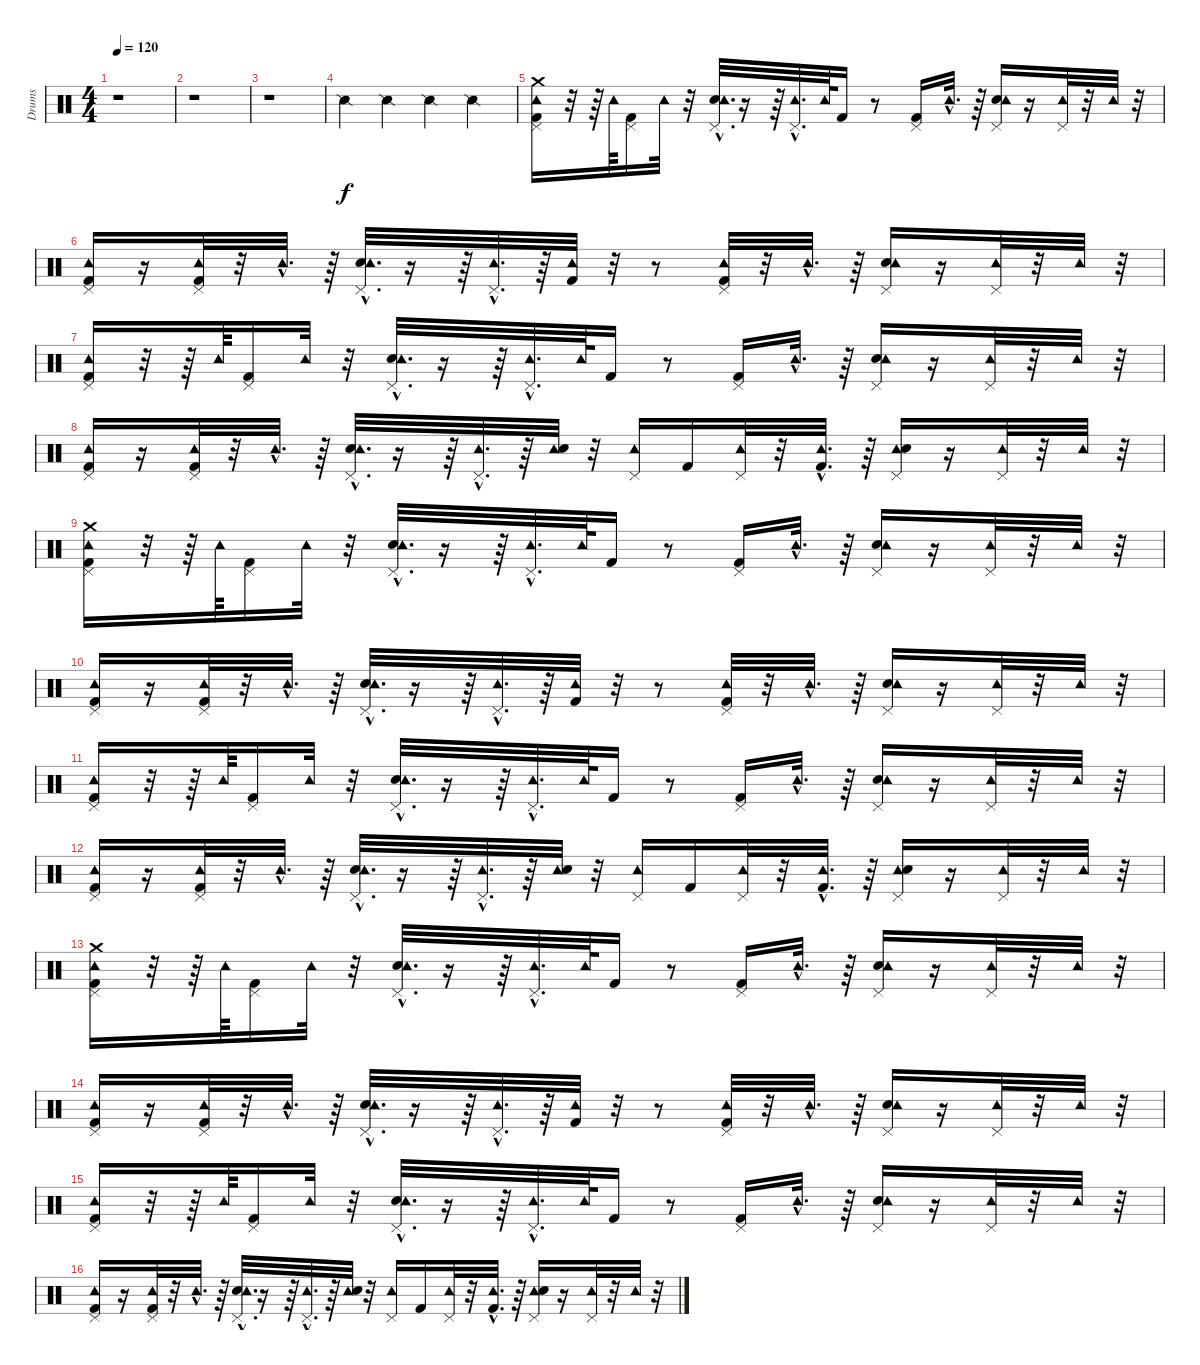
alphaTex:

\track ("Drums" "Drums") {instrument percussion}
\staff {score}
\articulation defaults
\ts (4 4)
\tempo 120
\clef neutral
\ks c
r.1{dy f} |
r.1 |
r.1 |
"Snare (side stick) 2".4 "Snare (side stick) 2".4 "Snare (side stick) 2".4 "Snare (side stick) 2".4 |
("Tambourine (hit)" "Pedal Hi-Hat (hit)" "Kick (hit) 2" "Crash medium (hit)").16 r.32 r.64 "Tambourine (hit)".64 ("Kick (hit) 2" "Pedal Hi-Hat (hit)").16 "Tambourine (hit)".32 r.32 ("Electric Snare (hit)"{hac} "Pedal Hi-Hat (hit)"{hac} "Tambourine (hit)"{hac}).32{d} r.16 r.64 ("Pedal Hi-Hat (hit)"{hac} "Tambourine (hit)"{hac}).32{d} "Tambourine (hit)".64 "Kick (hit) 2".16 r.8 ("Kick (hit) 2" "Pedal Hi-Hat (hit)").16 "Tambourine (hit)"{hac}.32{d} r.64 ("Electric Snare (hit)" "Pedal Hi-Hat (hit)" "Tambourine (hit)").16 r.16 ("Pedal Hi-Hat (hit)" "Tambourine (hit)").32 r.32 "Tambourine (hit)".32 r.32 |
("Kick (hit) 2" "Pedal Hi-Hat (hit)" "Tambourine (hit)").16 r.16 ("Kick (hit) 2" "Pedal Hi-Hat (hit)" "Tambourine (hit)").32 r.32 "Tambourine (hit)"{hac}.32{d} r.64 ("Electric Snare (hit)"{hac} "Pedal Hi-Hat (hit)"{hac} "Tambourine (hit)"{hac}).32{d} r.16 r.64 ("Pedal Hi-Hat (hit)"{hac} "Tambourine (hit)"{hac}).32{d} r.64 ("Kick (hit) 2" "Tambourine (hit)").32 r.32 r.8 ("Kick (hit) 2" "Pedal Hi-Hat (hit)" "Tambourine (hit)").32 r.32 "Tambourine (hit)"{hac}.32{d} r.64 ("Electric Snare (hit)" "Pedal Hi-Hat (hit)" "Tambourine (hit)").16 r.16 ("Pedal Hi-Hat (hit)" "Tambourine (hit)").32 r.32 "Tambourine (hit)".32 r.32 |
("Kick (hit) 2" "Pedal Hi-Hat (hit)" "Tambourine (hit)").16 r.32 r.64 "Tambourine (hit)".64 ("Kick (hit) 2" "Pedal Hi-Hat (hit)").16 "Tambourine (hit)".32 r.32 ("Electric Snare (hit)"{hac} "Pedal Hi-Hat (hit)"{hac} "Tambourine (hit)"{hac}).32{d} r.16 r.64 ("Pedal Hi-Hat (hit)"{hac} "Tambourine (hit)"{hac}).32{d} "Tambourine (hit)".64 "Kick (hit) 2".16 r.8 ("Kick (hit) 2" "Pedal Hi-Hat (hit)").16 "Tambourine (hit)"{hac}.32{d} r.64 ("Electric Snare (hit)" "Pedal Hi-Hat (hit)" "Tambourine (hit)").16 r.16 ("Pedal Hi-Hat (hit)" "Tambourine (hit)").32 r.32 "Tambourine (hit)".32 r.32 |
("Kick (hit) 2" "Pedal Hi-Hat (hit)" "Tambourine (hit)").16 r.16 ("Kick (hit) 2" "Pedal Hi-Hat (hit)" "Tambourine (hit)").32 r.32 "Tambourine (hit)"{hac}.32{d} r.64 ("Electric Snare (hit)"{hac} "Pedal Hi-Hat (hit)"{hac} "Tambourine (hit)"{hac}).32{d} r.16 r.64 ("Pedal Hi-Hat (hit)"{hac} "Tambourine (hit)"{hac}).32{d} r.64 ("Tambourine (hit)" "Electric Snare (hit)").32 r.32 ("Pedal Hi-Hat (hit)" "Tambourine (hit)").16 "Kick (hit) 2".16 ("Pedal Hi-Hat (hit)" "Tambourine (hit)").32 r.32 ("Tambourine (hit)"{hac} "Kick (hit) 2"{hac}).32{d} r.64 ("Pedal Hi-Hat (hit)" "Tambourine (hit)" "Electric Snare (hit)").16 r.16 ("Pedal Hi-Hat (hit)" "Tambourine (hit)").32 r.32 "Tambourine (hit)".32 r.32 |
("Tambourine (hit)" "Pedal Hi-Hat (hit)" "Kick (hit) 2" "Crash medium (hit)").16 r.32 r.64 "Tambourine (hit)".64 ("Kick (hit) 2" "Pedal Hi-Hat (hit)").16 "Tambourine (hit)".32 r.32 ("Electric Snare (hit)"{hac} "Pedal Hi-Hat (hit)"{hac} "Tambourine (hit)"{hac}).32{d} r.16 r.64 ("Pedal Hi-Hat (hit)"{hac} "Tambourine (hit)"{hac}).32{d} "Tambourine (hit)".64 "Kick (hit) 2".16 r.8 ("Kick (hit) 2" "Pedal Hi-Hat (hit)").16 "Tambourine (hit)"{hac}.32{d} r.64 ("Electric Snare (hit)" "Pedal Hi-Hat (hit)" "Tambourine (hit)").16 r.16 ("Pedal Hi-Hat (hit)" "Tambourine (hit)").32 r.32 "Tambourine (hit)".32 r.32 |
("Kick (hit) 2" "Pedal Hi-Hat (hit)" "Tambourine (hit)").16 r.16 ("Kick (hit) 2" "Pedal Hi-Hat (hit)" "Tambourine (hit)").32 r.32 "Tambourine (hit)"{hac}.32{d} r.64 ("Electric Snare (hit)"{hac} "Pedal Hi-Hat (hit)"{hac} "Tambourine (hit)"{hac}).32{d} r.16 r.64 ("Pedal Hi-Hat (hit)"{hac} "Tambourine (hit)"{hac}).32{d} r.64 ("Kick (hit) 2" "Tambourine (hit)").32 r.32 r.8 ("Kick (hit) 2" "Pedal Hi-Hat (hit)" "Tambourine (hit)").32 r.32 "Tambourine (hit)"{hac}.32{d} r.64 ("Electric Snare (hit)" "Pedal Hi-Hat (hit)" "Tambourine (hit)").16 r.16 ("Pedal Hi-Hat (hit)" "Tambourine (hit)").32 r.32 "Tambourine (hit)".32 r.32 |
("Kick (hit) 2" "Pedal Hi-Hat (hit)" "Tambourine (hit)").16 r.32 r.64 "Tambourine (hit)".64 ("Kick (hit) 2" "Pedal Hi-Hat (hit)").16 "Tambourine (hit)".32 r.32 ("Electric Snare (hit)"{hac} "Pedal Hi-Hat (hit)"{hac} "Tambourine (hit)"{hac}).32{d} r.16 r.64 ("Pedal Hi-Hat (hit)"{hac} "Tambourine (hit)"{hac}).32{d} "Tambourine (hit)".64 "Kick (hit) 2".16 r.8 ("Kick (hit) 2" "Pedal Hi-Hat (hit)").16 "Tambourine (hit)"{hac}.32{d} r.64 ("Electric Snare (hit)" "Pedal Hi-Hat (hit)" "Tambourine (hit)").16 r.16 ("Pedal Hi-Hat (hit)" "Tambourine (hit)").32 r.32 "Tambourine (hit)".32 r.32 |
("Kick (hit) 2" "Pedal Hi-Hat (hit)" "Tambourine (hit)").16 r.16 ("Kick (hit) 2" "Pedal Hi-Hat (hit)" "Tambourine (hit)").32 r.32 "Tambourine (hit)"{hac}.32{d} r.64 ("Electric Snare (hit)"{hac} "Pedal Hi-Hat (hit)"{hac} "Tambourine (hit)"{hac}).32{d} r.16 r.64 ("Pedal Hi-Hat (hit)"{hac} "Tambourine (hit)"{hac}).32{d} r.64 ("Tambourine (hit)" "Electric Snare (hit)").32 r.32 ("Pedal Hi-Hat (hit)" "Tambourine (hit)").16 "Kick (hit) 2".16 ("Pedal Hi-Hat (hit)" "Tambourine (hit)").32 r.32 ("Tambourine (hit)"{hac} "Kick (hit) 2"{hac}).32{d} r.64 ("Pedal Hi-Hat (hit)" "Tambourine (hit)" "Electric Snare (hit)").16 r.16 ("Pedal Hi-Hat (hit)" "Tambourine (hit)").32 r.32 "Tambourine (hit)".32 r.32 |
("Tambourine (hit)" "Pedal Hi-Hat (hit)" "Kick (hit) 2" "Crash medium (hit)").16 r.32 r.64 "Tambourine (hit)".64 ("Kick (hit) 2" "Pedal Hi-Hat (hit)").16 "Tambourine (hit)".32 r.32 ("Electric Snare (hit)"{hac} "Pedal Hi-Hat (hit)"{hac} "Tambourine (hit)"{hac}).32{d} r.16 r.64 ("Pedal Hi-Hat (hit)"{hac} "Tambourine (hit)"{hac}).32{d} "Tambourine (hit)".64 "Kick (hit) 2".16 r.8 ("Kick (hit) 2" "Pedal Hi-Hat (hit)").16 "Tambourine (hit)"{hac}.32{d} r.64 ("Electric Snare (hit)" "Pedal Hi-Hat (hit)" "Tambourine (hit)").16 r.16 ("Pedal Hi-Hat (hit)" "Tambourine (hit)").32 r.32 "Tambourine (hit)".32 r.32 |
("Kick (hit) 2" "Pedal Hi-Hat (hit)" "Tambourine (hit)").16 r.16 ("Kick (hit) 2" "Pedal Hi-Hat (hit)" "Tambourine (hit)").32 r.32 "Tambourine (hit)"{hac}.32{d} r.64 ("Electric Snare (hit)"{hac} "Pedal Hi-Hat (hit)"{hac} "Tambourine (hit)"{hac}).32{d} r.16 r.64 ("Pedal Hi-Hat (hit)"{hac} "Tambourine (hit)"{hac}).32{d} r.64 ("Kick (hit) 2" "Tambourine (hit)").32 r.32 r.8 ("Kick (hit) 2" "Pedal Hi-Hat (hit)" "Tambourine (hit)").32 r.32 "Tambourine (hit)"{hac}.32{d} r.64 ("Electric Snare (hit)" "Pedal Hi-Hat (hit)" "Tambourine (hit)").16 r.16 ("Pedal Hi-Hat (hit)" "Tambourine (hit)").32 r.32 "Tambourine (hit)".32 r.32 |
("Kick (hit) 2" "Pedal Hi-Hat (hit)" "Tambourine (hit)").16 r.32 r.64 "Tambourine (hit)".64 ("Kick (hit) 2" "Pedal Hi-Hat (hit)").16 "Tambourine (hit)".32 r.32 ("Electric Snare (hit)"{hac} "Pedal Hi-Hat (hit)"{hac} "Tambourine (hit)"{hac}).32{d} r.16 r.64 ("Pedal Hi-Hat (hit)"{hac} "Tambourine (hit)"{hac}).32{d} "Tambourine (hit)".64 "Kick (hit) 2".16 r.8 ("Kick (hit) 2" "Pedal Hi-Hat (hit)").16 "Tambourine (hit)"{hac}.32{d} r.64 ("Electric Snare (hit)" "Pedal Hi-Hat (hit)" "Tambourine (hit)").16 r.16 ("Pedal Hi-Hat (hit)" "Tambourine (hit)").32 r.32 "Tambourine (hit)".32 r.32 |
("Kick (hit) 2" "Pedal Hi-Hat (hit)" "Tambourine (hit)").16 r.16 ("Kick (hit) 2" "Pedal Hi-Hat (hit)" "Tambourine (hit)").32 r.32 "Tambourine (hit)"{hac}.32{d} r.64 ("Electric Snare (hit)"{hac} "Pedal Hi-Hat (hit)"{hac} "Tambourine (hit)"{hac}).32{d} r.16 r.64 ("Pedal Hi-Hat (hit)"{hac} "Tambourine (hit)"{hac}).32{d} r.64 ("Tambourine (hit)" "Electric Snare (hit)").32 r.32 ("Pedal Hi-Hat (hit)" "Tambourine (hit)").16 "Kick (hit) 2".16 ("Pedal Hi-Hat (hit)" "Tambourine (hit)").32 r.32 ("Tambourine (hit)"{hac} "Kick (hit) 2"{hac}).32{d} r.64 ("Pedal Hi-Hat (hit)" "Tambourine (hit)" "Electric Snare (hit)").16 r.16 ("Pedal Hi-Hat (hit)" "Tambourine (hit)").32 r.32 "Tambourine (hit)".32 r.32
